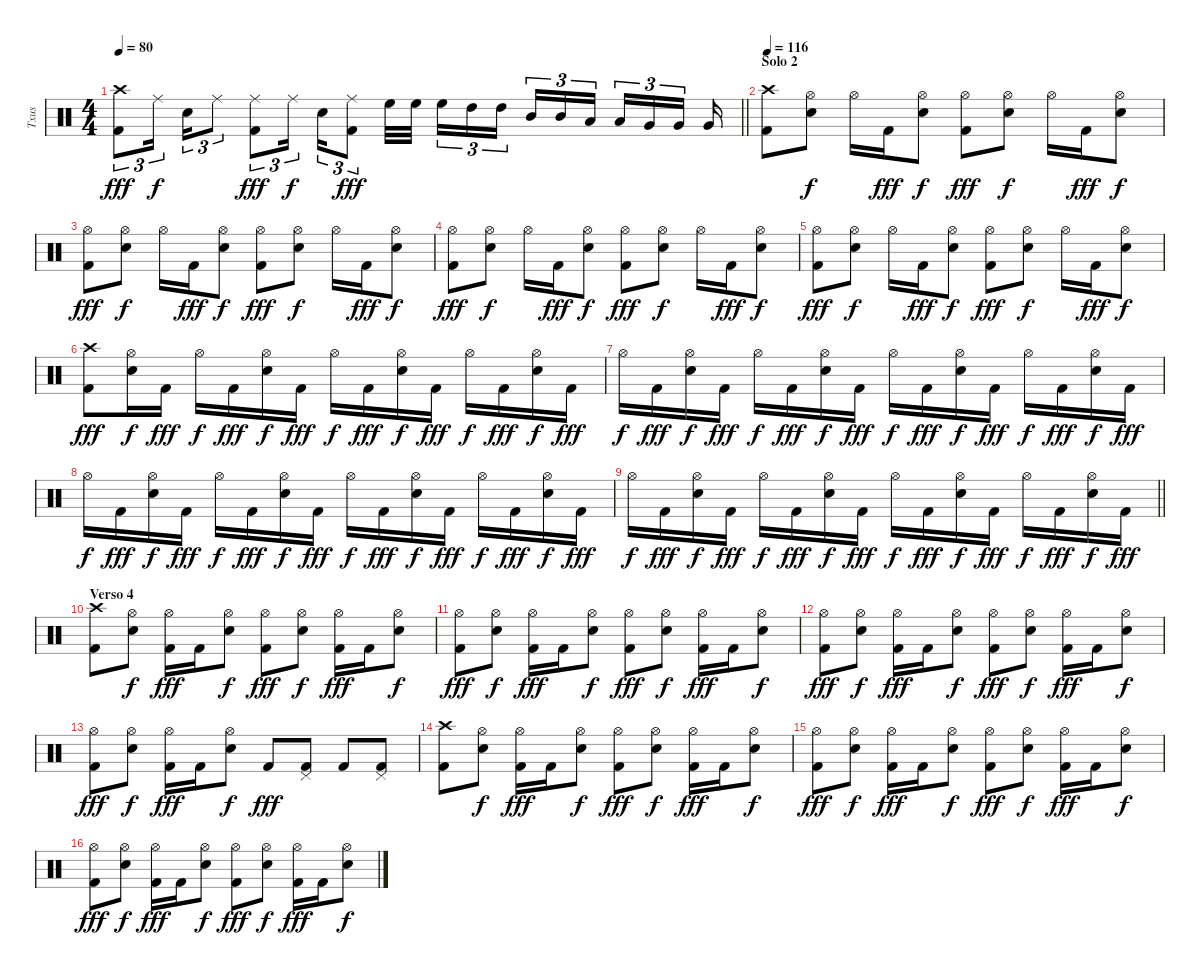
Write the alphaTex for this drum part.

\track ("Txus" "Txus") {instrument percussion}
\staff {score}
\articulation defaults
\ts (4 4)
\tempo 80
\clef neutral
\barLineRight lightlight
\ks c
("Kick (hit) 2" "Crash high (hit)").8{tu (3 2) dy fff} "Ride (middle)".16{tu (3 2) dy f beam splitsecondary} "Electric Snare (hit)".16{tu (3 2)} "Ride (middle)".8{tu (3 2)} ("Kick (hit) 2" "Ride (middle)").8{tu (3 2) dy fff} "Ride (middle)".16{tu (3 2) dy f beam splitsecondary} "Electric Snare (hit)".16{tu (3 2)} ("Kick (hit) 2" "Ride (middle)").8{tu (3 2) dy fff} "High Floor Tom (hit)".32 "High Floor Tom (hit)".32{beam splitsecondary} "High Floor Tom (hit)".16{tu (3 2)} "High Tom (hit)".16{tu (3 2)} "High Tom (hit)".16{tu (3 2) beam splitsecondary} "Mid Tom (hit)".16{tu (3 2)} "Mid Tom (hit)".16{tu (3 2)} "Low Tom (hit)".16{tu (3 2) beam splitsecondary} "Low Tom (hit)".16{tu (3 2)} "Very Low Tom (hit)".16{tu (3 2)} "Very Low Tom (hit)".16{tu (3 2) beam splitsecondary} "Very Low Tom (hit)".16 |
\section ("" "Solo 2")
\tempo 116
("Kick (hit) 2" "Crash high (hit)").8{volume 16} ("Electric Snare (hit)" "Hi-Hat (open)").8{dy f} "Hi-Hat (open)".16 "Kick (hit) 2".16{dy fff} ("Electric Snare (hit)" "Hi-Hat (open)").8{dy f} ("Kick (hit) 2" "Hi-Hat (open)").8{dy fff} ("Electric Snare (hit)" "Hi-Hat (open)").8{dy f} "Hi-Hat (open)".16 "Kick (hit) 2".16{dy fff} ("Electric Snare (hit)" "Hi-Hat (open)").8{dy f} |
("Kick (hit) 2" "Hi-Hat (open)").8{dy fff} ("Electric Snare (hit)" "Hi-Hat (open)").8{dy f} "Hi-Hat (open)".16 "Kick (hit) 2".16{dy fff} ("Electric Snare (hit)" "Hi-Hat (open)").8{dy f} ("Kick (hit) 2" "Hi-Hat (open)").8{dy fff} ("Electric Snare (hit)" "Hi-Hat (open)").8{dy f} "Hi-Hat (open)".16 "Kick (hit) 2".16{dy fff} ("Electric Snare (hit)" "Hi-Hat (open)").8{dy f} |
("Kick (hit) 2" "Hi-Hat (open)").8{dy fff} ("Electric Snare (hit)" "Hi-Hat (open)").8{dy f} "Hi-Hat (open)".16 "Kick (hit) 2".16{dy fff} ("Electric Snare (hit)" "Hi-Hat (open)").8{dy f} ("Kick (hit) 2" "Hi-Hat (open)").8{dy fff} ("Electric Snare (hit)" "Hi-Hat (open)").8{dy f} "Hi-Hat (open)".16 "Kick (hit) 2".16{dy fff} ("Electric Snare (hit)" "Hi-Hat (open)").8{dy f} |
("Kick (hit) 2" "Hi-Hat (open)").8{dy fff} ("Electric Snare (hit)" "Hi-Hat (open)").8{dy f} "Hi-Hat (open)".16 "Kick (hit) 2".16{dy fff} ("Electric Snare (hit)" "Hi-Hat (open)").8{dy f} ("Kick (hit) 2" "Hi-Hat (open)").8{dy fff} ("Electric Snare (hit)" "Hi-Hat (open)").8{dy f} "Hi-Hat (open)".16 "Kick (hit) 2".16{dy fff} ("Electric Snare (hit)" "Hi-Hat (open)").8{dy f} |
("Kick (hit) 2" "Crash high (hit)").8{dy fff} ("Electric Snare (hit)" "Hi-Hat (open)").16{dy f} "Kick (hit) 2".16{dy fff} "Hi-Hat (open)".16{dy f} "Kick (hit) 2".16{dy fff} ("Electric Snare (hit)" "Hi-Hat (open)").16{dy f} "Kick (hit) 2".16{dy fff} "Hi-Hat (open)".16{dy f} "Kick (hit) 2".16{dy fff} ("Electric Snare (hit)" "Hi-Hat (open)").16{dy f} "Kick (hit) 2".16{dy fff} "Hi-Hat (open)".16{dy f} "Kick (hit) 2".16{dy fff} ("Electric Snare (hit)" "Hi-Hat (open)").16{dy f} "Kick (hit) 2".16{dy fff} |
"Hi-Hat (open)".16{dy f} "Kick (hit) 2".16{dy fff} ("Electric Snare (hit)" "Hi-Hat (open)").16{dy f} "Kick (hit) 2".16{dy fff} "Hi-Hat (open)".16{dy f} "Kick (hit) 2".16{dy fff} ("Electric Snare (hit)" "Hi-Hat (open)").16{dy f} "Kick (hit) 2".16{dy fff} "Hi-Hat (open)".16{dy f} "Kick (hit) 2".16{dy fff} ("Electric Snare (hit)" "Hi-Hat (open)").16{dy f} "Kick (hit) 2".16{dy fff} "Hi-Hat (open)".16{dy f} "Kick (hit) 2".16{dy fff} ("Electric Snare (hit)" "Hi-Hat (open)").16{dy f} "Kick (hit) 2".16{dy fff} |
"Hi-Hat (open)".16{dy f} "Kick (hit) 2".16{dy fff} ("Electric Snare (hit)" "Hi-Hat (open)").16{dy f} "Kick (hit) 2".16{dy fff} "Hi-Hat (open)".16{dy f} "Kick (hit) 2".16{dy fff} ("Electric Snare (hit)" "Hi-Hat (open)").16{dy f} "Kick (hit) 2".16{dy fff} "Hi-Hat (open)".16{dy f} "Kick (hit) 2".16{dy fff} ("Electric Snare (hit)" "Hi-Hat (open)").16{dy f} "Kick (hit) 2".16{dy fff} "Hi-Hat (open)".16{dy f} "Kick (hit) 2".16{dy fff} ("Electric Snare (hit)" "Hi-Hat (open)").16{dy f} "Kick (hit) 2".16{dy fff} |
\barLineRight lightlight "Hi-Hat (open)".16{dy f} "Kick (hit) 2".16{dy fff}
("Electric Snare (hit)" "Hi-Hat (open)").16{dy f} "Kick (hit) 2".16{dy fff} "Hi-Hat (open)".16{dy f} "Kick (hit) 2".16{dy fff} ("Electric Snare (hit)" "Hi-Hat (open)").16{dy f} "Kick (hit) 2".16{dy fff} "Hi-Hat (open)".16{dy f} "Kick (hit) 2".16{dy fff} ("Electric Snare (hit)" "Hi-Hat (open)").16{dy f} "Kick (hit) 2".16{dy fff} "Hi-Hat (open)".16{dy f} "Kick (hit) 2".16{dy fff} ("Electric Snare (hit)" "Hi-Hat (open)").16{dy f} "Kick (hit) 2".16{dy fff} |
\section ("" "Verso 4")
("Kick (hit) 2" "Crash high (hit)").8 ("Electric Snare (hit)" "Hi-Hat (open)").8{dy f} ("Kick (hit) 2" "Hi-Hat (open)").16{dy fff} "Kick (hit) 2".16 ("Electric Snare (hit)" "Hi-Hat (open)").8{dy f} ("Kick (hit) 2" "Hi-Hat (open)").8{dy fff} ("Electric Snare (hit)" "Hi-Hat (open)").8{dy f} ("Kick (hit) 2" "Hi-Hat (open)").16{dy fff} "Kick (hit) 2".16 ("Electric Snare (hit)" "Hi-Hat (open)").8{dy f} |
("Kick (hit) 2" "Hi-Hat (open)").8{dy fff} ("Electric Snare (hit)" "Hi-Hat (open)").8{dy f} ("Kick (hit) 2" "Hi-Hat (open)").16{dy fff} "Kick (hit) 2".16 ("Electric Snare (hit)" "Hi-Hat (open)").8{dy f} ("Kick (hit) 2" "Hi-Hat (open)").8{dy fff} ("Electric Snare (hit)" "Hi-Hat (open)").8{dy f} ("Kick (hit) 2" "Hi-Hat (open)").16{dy fff} "Kick (hit) 2".16 ("Electric Snare (hit)" "Hi-Hat (open)").8{dy f} |
("Kick (hit) 2" "Hi-Hat (open)").8{dy fff} ("Electric Snare (hit)" "Hi-Hat (open)").8{dy f} ("Kick (hit) 2" "Hi-Hat (open)").16{dy fff} "Kick (hit) 2".16 ("Electric Snare (hit)" "Hi-Hat (open)").8{dy f} ("Kick (hit) 2" "Hi-Hat (open)").8{dy fff} ("Electric Snare (hit)" "Hi-Hat (open)").8{dy f} ("Kick (hit) 2" "Hi-Hat (open)").16{dy fff} "Kick (hit) 2".16 ("Electric Snare (hit)" "Hi-Hat (open)").8{dy f} |
("Kick (hit) 2" "Hi-Hat (open)").8{dy fff} ("Electric Snare (hit)" "Hi-Hat (open)").8{dy f} ("Kick (hit) 2" "Hi-Hat (open)").16{dy fff} "Kick (hit) 2".16 ("Electric Snare (hit)" "Hi-Hat (open)").8{dy f} "Kick (hit) 2".8{dy fff} ("Kick (hit) 2" "Pedal Hi-Hat (hit)").8 "Kick (hit) 2".8 ("Kick (hit) 2" "Pedal Hi-Hat (hit)").8 |
("Kick (hit) 2" "Crash high (hit)").8 ("Electric Snare (hit)" "Hi-Hat (open)").8{dy f} ("Kick (hit) 2" "Hi-Hat (open)").16{dy fff} "Kick (hit) 2".16 ("Electric Snare (hit)" "Hi-Hat (open)").8{dy f} ("Kick (hit) 2" "Hi-Hat (open)").8{dy fff} ("Electric Snare (hit)" "Hi-Hat (open)").8{dy f} ("Kick (hit) 2" "Hi-Hat (open)").16{dy fff} "Kick (hit) 2".16 ("Electric Snare (hit)" "Hi-Hat (open)").8{dy f} |
("Kick (hit) 2" "Hi-Hat (open)").8{dy fff} ("Electric Snare (hit)" "Hi-Hat (open)").8{dy f} ("Kick (hit) 2" "Hi-Hat (open)").16{dy fff} "Kick (hit) 2".16 ("Electric Snare (hit)" "Hi-Hat (open)").8{dy f} ("Kick (hit) 2" "Hi-Hat (open)").8{dy fff} ("Electric Snare (hit)" "Hi-Hat (open)").8{dy f} ("Kick (hit) 2" "Hi-Hat (open)").16{dy fff} "Kick (hit) 2".16 ("Electric Snare (hit)" "Hi-Hat (open)").8{dy f} |
("Kick (hit) 2" "Hi-Hat (open)").8{dy fff} ("Electric Snare (hit)" "Hi-Hat (open)").8{dy f} ("Kick (hit) 2" "Hi-Hat (open)").16{dy fff} "Kick (hit) 2".16 ("Electric Snare (hit)" "Hi-Hat (open)").8{dy f} ("Kick (hit) 2" "Hi-Hat (open)").8{dy fff} ("Electric Snare (hit)" "Hi-Hat (open)").8{dy f} ("Kick (hit) 2" "Hi-Hat (open)").16{dy fff} "Kick (hit) 2".16 ("Electric Snare (hit)" "Hi-Hat (open)").8{dy f}
